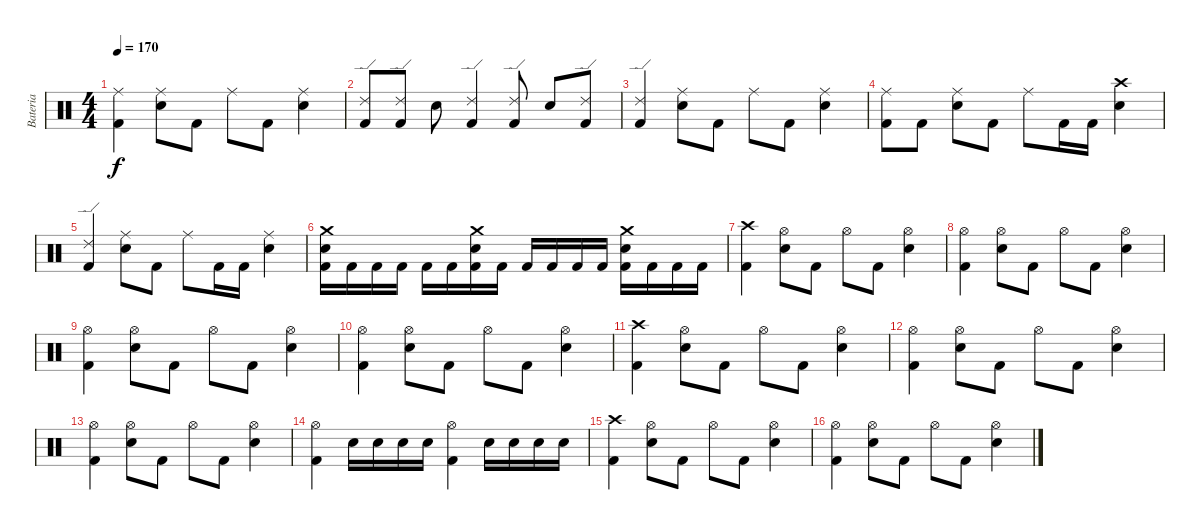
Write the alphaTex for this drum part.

\track ("Bateria" "Bateria") {instrument percussion}
\staff {score}
\articulation defaults
\ts (4 4)
\tempo 170
\clef neutral
\ks c
("Ride (middle)" "Kick (hit) 2").4{dy f} ("Ride (middle)" "Snare (hit) 2").8 "Kick (hit) 2".8 "Ride (middle)".8 "Kick (hit) 2".8 ("Ride (middle)" "Snare (hit) 2").4 |
("Ride (edge) 2" "Kick (hit) 2").8 ("Ride (edge) 2" "Kick (hit) 2").8 "Snare (hit) 2".8 ("Ride (edge) 2" "Kick (hit) 2").4 ("Ride (edge) 2" "Kick (hit) 2").8 "Snare (hit) 2".8 ("Ride (edge) 2" "Kick (hit) 2").8 |
("Ride (edge) 2" "Kick (hit) 2").4 ("Ride (middle)" "Snare (hit) 2").8 "Kick (hit) 2".8 "Ride (middle)".8 "Kick (hit) 2".8 ("Ride (middle)" "Snare (hit) 2").4 |
("Ride (middle)" "Kick (hit) 2").8 "Kick (hit) 2".8 ("Ride (middle)" "Snare (hit) 2").8 "Kick (hit) 2".8 "Ride (middle)".8 "Kick (hit) 2".16 "Kick (hit) 2".16 ("Crash high (hit)" "Snare (hit) 2").4 |
("Ride (edge) 2" "Kick (hit) 2").4 ("Ride (middle)" "Snare (hit) 2").8 "Kick (hit) 2".8 "Ride (middle)".8 "Kick (hit) 2".16 "Kick (hit) 2".16 ("Ride (middle)" "Snare (hit) 2").4 |
("Crash medium (hit)" "Kick (hit) 2" "Snare (hit) 2").16 "Kick (hit) 2".16 "Kick (hit) 2".16 "Kick (hit) 2".16 "Kick (hit) 2".16 "Kick (hit) 2".16 ("Crash medium (hit)" "Kick (hit) 2" "Snare (hit) 2").16 "Kick (hit) 2".16 "Kick (hit) 2".16 "Kick (hit) 2".16 "Kick (hit) 2".16 "Kick (hit) 2".16 ("Crash medium (hit)" "Kick (hit) 2" "Snare (hit) 2").16 "Kick (hit) 2".16 "Kick (hit) 2".16 "Kick (hit) 2".16 |
("Crash high (hit)" "Kick (hit) 2").4 ("Hi-Hat (open)" "Snare (hit) 2").8 "Kick (hit) 2".8 "Hi-Hat (open)".8 "Kick (hit) 2".8 ("Hi-Hat (open)" "Snare (hit) 2").4 |
("Hi-Hat (open)" "Kick (hit) 2").4 ("Hi-Hat (open)" "Snare (hit) 2").8 "Kick (hit) 2".8 "Hi-Hat (open)".8 "Kick (hit) 2".8 ("Hi-Hat (open)" "Snare (hit) 2").4 |
("Hi-Hat (open)" "Kick (hit) 2").4 ("Hi-Hat (open)" "Snare (hit) 2").8 "Kick (hit) 2".8 "Hi-Hat (open)".8 "Kick (hit) 2".8 ("Hi-Hat (open)" "Snare (hit) 2").4 |
("Hi-Hat (open)" "Kick (hit) 2").4 ("Hi-Hat (open)" "Snare (hit) 2").8 "Kick (hit) 2".8 "Hi-Hat (open)".8 "Kick (hit) 2".8 ("Hi-Hat (open)" "Snare (hit) 2").4 |
("Crash high (hit)" "Kick (hit) 2").4 ("Hi-Hat (open)" "Snare (hit) 2").8 "Kick (hit) 2".8 "Hi-Hat (open)".8 "Kick (hit) 2".8 ("Hi-Hat (open)" "Snare (hit) 2").4 |
("Hi-Hat (open)" "Kick (hit) 2").4 ("Hi-Hat (open)" "Snare (hit) 2").8 "Kick (hit) 2".8 "Hi-Hat (open)".8 "Kick (hit) 2".8 ("Hi-Hat (open)" "Snare (hit) 2").4 |
("Hi-Hat (open)" "Kick (hit) 2").4 ("Hi-Hat (open)" "Snare (hit) 2").8 "Kick (hit) 2".8 "Hi-Hat (open)".8 "Kick (hit) 2".8 ("Hi-Hat (open)" "Snare (hit) 2").4 |
("Hi-Hat (open)" "Kick (hit) 2").4 "Snare (hit) 2".16 "Snare (hit) 2".16 "Snare (hit) 2".16 "Snare (hit) 2".16 ("Hi-Hat (open)" "Kick (hit) 2").4 "Snare (hit) 2".16 "Snare (hit) 2".16 "Snare (hit) 2".16 "Snare (hit) 2".16 |
("Crash high (hit)" "Kick (hit) 2").4 ("Hi-Hat (open)" "Snare (hit) 2").8 "Kick (hit) 2".8 "Hi-Hat (open)".8 "Kick (hit) 2".8 ("Hi-Hat (open)" "Snare (hit) 2").4 |
("Hi-Hat (open)" "Kick (hit) 2").4 ("Hi-Hat (open)" "Snare (hit) 2").8 "Kick (hit) 2".8 "Hi-Hat (open)".8 "Kick (hit) 2".8 ("Hi-Hat (open)" "Snare (hit) 2").4
